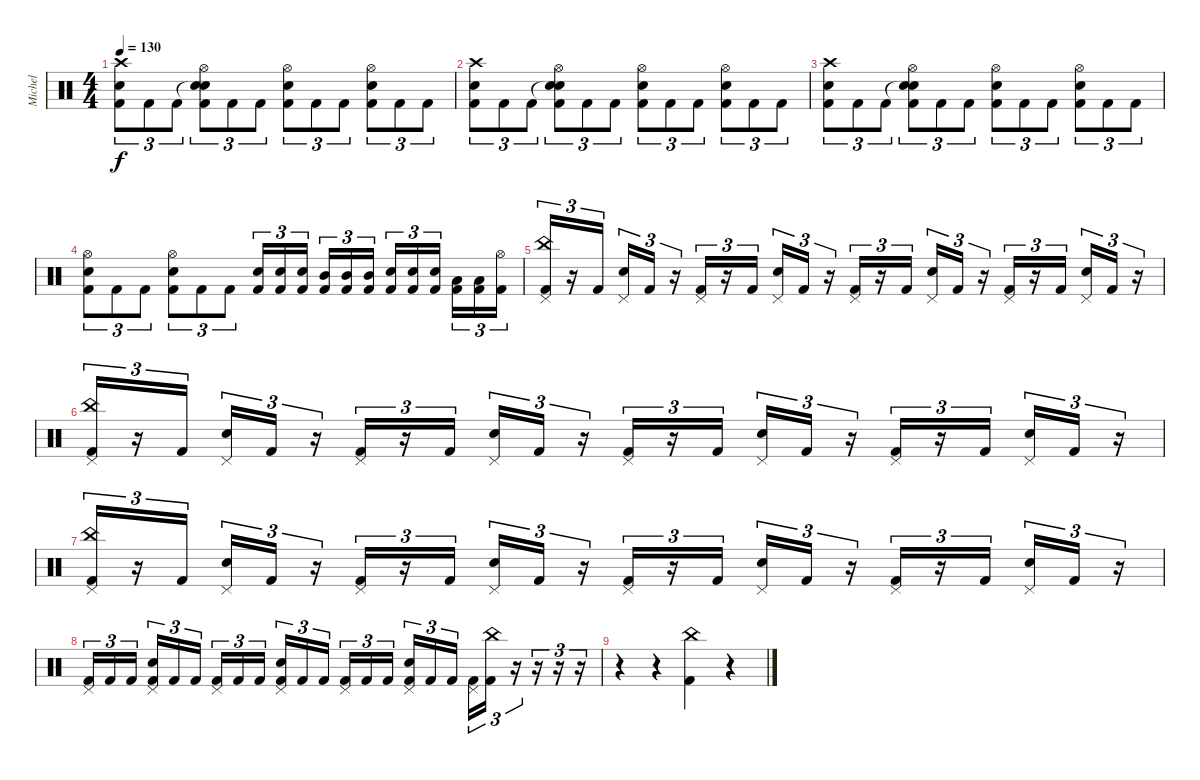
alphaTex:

\track ("Michel" "Michel") {instrument percussion}
\staff {score}
\articulation defaults
\ts (4 4)
\tempo 130
\clef neutral
\ks c
("Crash high (hit)" "Snare (hit) 2" "Kick (hit) 2").8{tu (3 2) dy f} "Kick (hit) 2".8{tu (3 2)} "Kick (hit) 2".8{tu (3 2)} ("Snare (hit)"{t} "Snare (hit) 2" "Kick (hit) 2" "Hi-Hat (open)").8{tu (3 2)} "Kick (hit) 2".8{tu (3 2)} "Kick (hit) 2".8{tu (3 2)} ("Snare (hit) 2" "Kick (hit) 2" "Hi-Hat (open)").8{tu (3 2)} "Kick (hit) 2".8{tu (3 2)} "Kick (hit) 2".8{tu (3 2)} ("Snare (hit) 2" "Kick (hit) 2" "Hi-Hat (open)").8{tu (3 2)} "Kick (hit) 2".8{tu (3 2)} "Kick (hit) 2".8{tu (3 2)} |
("Crash high (hit)" "Snare (hit) 2" "Kick (hit) 2").8{tu (3 2)} "Kick (hit) 2".8{tu (3 2)} "Kick (hit) 2".8{tu (3 2)} ("Snare (hit)"{t} "Snare (hit) 2" "Kick (hit) 2" "Hi-Hat (open)").8{tu (3 2)} "Kick (hit) 2".8{tu (3 2)} "Kick (hit) 2".8{tu (3 2)} ("Snare (hit) 2" "Kick (hit) 2" "Hi-Hat (open)").8{tu (3 2)} "Kick (hit) 2".8{tu (3 2)} "Kick (hit) 2".8{tu (3 2)} ("Snare (hit) 2" "Kick (hit) 2" "Hi-Hat (open)").8{tu (3 2)} "Kick (hit) 2".8{tu (3 2)} "Kick (hit) 2".8{tu (3 2)} |
("Crash high (hit)" "Snare (hit) 2" "Kick (hit) 2").8{tu (3 2)} "Kick (hit) 2".8{tu (3 2)} "Kick (hit) 2".8{tu (3 2)} ("Snare (hit)"{t} "Snare (hit) 2" "Kick (hit) 2" "Hi-Hat (open)").8{tu (3 2)} "Kick (hit) 2".8{tu (3 2)} "Kick (hit) 2".8{tu (3 2)} ("Snare (hit) 2" "Kick (hit) 2" "Hi-Hat (open)").8{tu (3 2)} "Kick (hit) 2".8{tu (3 2)} "Kick (hit) 2".8{tu (3 2)} ("Snare (hit) 2" "Kick (hit) 2" "Hi-Hat (open)").8{tu (3 2)} "Kick (hit) 2".8{tu (3 2)} "Kick (hit) 2".8{tu (3 2)} |
("Snare (hit) 2" "Kick (hit) 2" "Hi-Hat (open)").8{tu (3 2)} "Kick (hit) 2".8{tu (3 2)} "Kick (hit) 2".8{tu (3 2)} ("Snare (hit) 2" "Kick (hit) 2" "Hi-Hat (open)").8{tu (3 2)} "Kick (hit) 2".8{tu (3 2)} "Kick (hit) 2".8{tu (3 2)} ("Snare (hit) 2" "Kick (hit) 2").16{tu (3 2)} ("Snare (hit) 2" "Kick (hit) 2").16{tu (3 2)} ("Snare (hit) 2" "Kick (hit) 2").16{tu (3 2)} ("Mid Tom (hit)" "Kick (hit) 2").16{tu (3 2)} ("Mid Tom (hit)" "Kick (hit) 2").16{tu (3 2)} ("Mid Tom (hit)" "Kick (hit) 2").16{tu (3 2)} ("Snare (hit) 2" "Kick (hit) 2").16{tu (3 2)} ("Snare (hit) 2" "Kick (hit) 2").16{tu (3 2)} ("Snare (hit) 2" "Kick (hit) 2").16{tu (3 2)} ("Low Tom (hit)" "Kick (hit) 2").16{tu (3 2)} ("Low Tom (hit)" "Kick (hit) 2").16{tu (3 2)} ("Hi-Hat (open)" "Kick (hit) 2").16{tu (3 2)} |
("China (hit)" "Kick (hit) 2" "Pedal Hi-Hat (hit)").16{tu (3 2)} r.16{tu (3 2)} "Kick (hit) 2".16{tu (3 2)} ("Snare (hit) 2" "Pedal Hi-Hat (hit)").16{tu (3 2)} "Kick (hit) 2".16{tu (3 2)} r.16{tu (3 2)} ("Kick (hit) 2" "Pedal Hi-Hat (hit)").16{tu (3 2)} r.16{tu (3 2)} "Kick (hit) 2".16{tu (3 2)} ("Snare (hit) 2" "Pedal Hi-Hat (hit)").16{tu (3 2)} "Kick (hit) 2".16{tu (3 2)} r.16{tu (3 2)} ("Kick (hit) 2" "Pedal Hi-Hat (hit)").16{tu (3 2)} r.16{tu (3 2)} "Kick (hit) 2".16{tu (3 2)} ("Snare (hit) 2" "Pedal Hi-Hat (hit)").16{tu (3 2)} "Kick (hit) 2".16{tu (3 2)} r.16{tu (3 2)} ("Kick (hit) 2" "Pedal Hi-Hat (hit)").16{tu (3 2)} r.16{tu (3 2)} "Kick (hit) 2".16{tu (3 2)} ("Snare (hit) 2" "Pedal Hi-Hat (hit)").16{tu (3 2)} "Kick (hit) 2".16{tu (3 2)} r.16{tu (3 2)} |
("China (hit)" "Kick (hit) 2" "Pedal Hi-Hat (hit)").16{tu (3 2)} r.16{tu (3 2)} "Kick (hit) 2".16{tu (3 2)} ("Snare (hit) 2" "Pedal Hi-Hat (hit)").16{tu (3 2)} "Kick (hit) 2".16{tu (3 2)} r.16{tu (3 2)} ("Kick (hit) 2" "Pedal Hi-Hat (hit)").16{tu (3 2)} r.16{tu (3 2)} "Kick (hit) 2".16{tu (3 2)} ("Snare (hit) 2" "Pedal Hi-Hat (hit)").16{tu (3 2)} "Kick (hit) 2".16{tu (3 2)} r.16{tu (3 2)} ("Kick (hit) 2" "Pedal Hi-Hat (hit)").16{tu (3 2)} r.16{tu (3 2)} "Kick (hit) 2".16{tu (3 2)} ("Snare (hit) 2" "Pedal Hi-Hat (hit)").16{tu (3 2)} "Kick (hit) 2".16{tu (3 2)} r.16{tu (3 2)} ("Kick (hit) 2" "Pedal Hi-Hat (hit)").16{tu (3 2)} r.16{tu (3 2)} "Kick (hit) 2".16{tu (3 2)} ("Snare (hit) 2" "Pedal Hi-Hat (hit)").16{tu (3 2)} "Kick (hit) 2".16{tu (3 2)} r.16{tu (3 2)} |
("China (hit)" "Kick (hit) 2" "Pedal Hi-Hat (hit)").16{tu (3 2)} r.16{tu (3 2)} "Kick (hit) 2".16{tu (3 2)} ("Snare (hit) 2" "Pedal Hi-Hat (hit)").16{tu (3 2)} "Kick (hit) 2".16{tu (3 2)} r.16{tu (3 2)} ("Kick (hit) 2" "Pedal Hi-Hat (hit)").16{tu (3 2)} r.16{tu (3 2)} "Kick (hit) 2".16{tu (3 2)} ("Snare (hit) 2" "Pedal Hi-Hat (hit)").16{tu (3 2)} "Kick (hit) 2".16{tu (3 2)} r.16{tu (3 2)} ("Kick (hit) 2" "Pedal Hi-Hat (hit)").16{tu (3 2)} r.16{tu (3 2)} "Kick (hit) 2".16{tu (3 2)} ("Snare (hit) 2" "Pedal Hi-Hat (hit)").16{tu (3 2)} "Kick (hit) 2".16{tu (3 2)} r.16{tu (3 2)} ("Kick (hit) 2" "Pedal Hi-Hat (hit)").16{tu (3 2)} r.16{tu (3 2)} "Kick (hit) 2".16{tu (3 2)} ("Snare (hit) 2" "Pedal Hi-Hat (hit)").16{tu (3 2)} "Kick (hit) 2".16{tu (3 2)} r.16{tu (3 2)} |
("Kick (hit) 2" "Pedal Hi-Hat (hit)").16{tu (3 2)} "Kick (hit) 2".16{tu (3 2)} "Kick (hit) 2".16{tu (3 2)} ("Snare (hit) 2" "Kick (hit) 2" "Pedal Hi-Hat (hit)").16{tu (3 2)} "Kick (hit) 2".16{tu (3 2)} "Kick (hit) 2".16{tu (3 2)} ("Kick (hit) 2" "Pedal Hi-Hat (hit)").16{tu (3 2)} "Kick (hit) 2".16{tu (3 2)} "Kick (hit) 2".16{tu (3 2)} ("Snare (hit) 2" "Kick (hit) 2" "Pedal Hi-Hat (hit)").16{tu (3 2)} "Kick (hit) 2".16{tu (3 2)} "Kick (hit) 2".16{tu (3 2)} ("Kick (hit) 2" "Pedal Hi-Hat (hit)").16{tu (3 2)} "Kick (hit) 2".16{tu (3 2)} "Kick (hit) 2".16{tu (3 2)} ("Snare (hit) 2" "Kick (hit) 2" "Pedal Hi-Hat (hit)").16{tu (3 2)} "Kick (hit) 2".16{tu (3 2)} "Kick (hit) 2".16{tu (3 2)} ("Kick (hit) 2" "Pedal Hi-Hat (hit)").16{tu (3 2)} ("China (hit)" "Kick (hit) 2").16{tu (3 2)} r.16{tu (3 2)} r.16{tu (3 2)} r.16{tu (3 2)} r.16{tu (3 2)} |
r.4 r.4 ("China (hit)" "Kick (hit) 2").4 r.4
